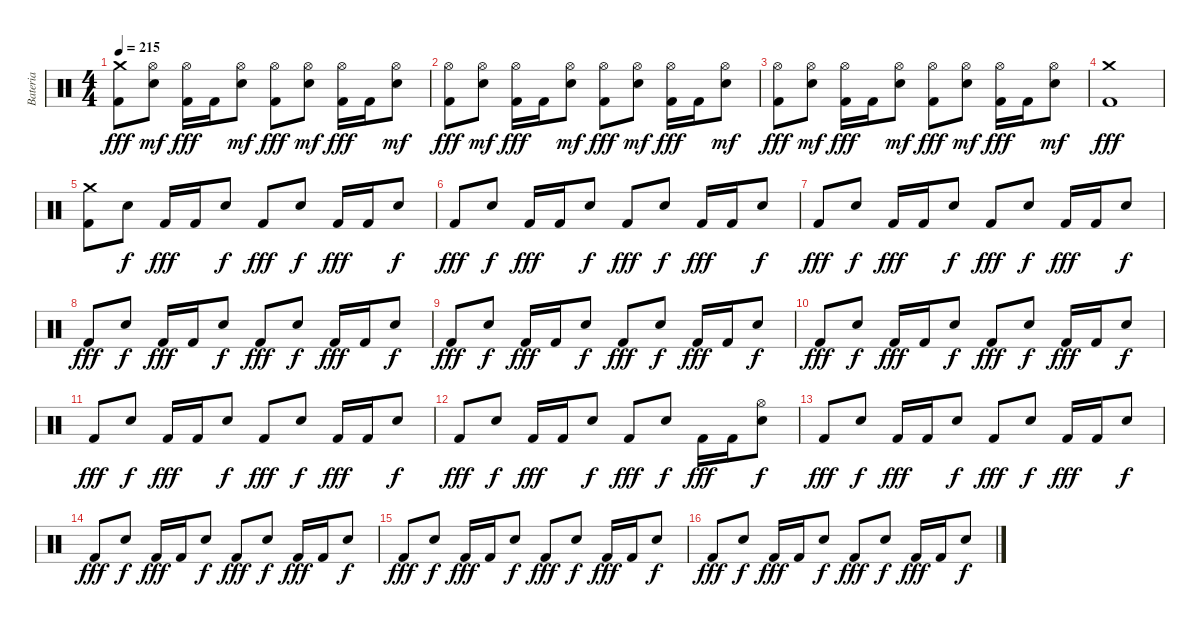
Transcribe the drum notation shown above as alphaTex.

\track ("Bateria" "Bateria") {instrument percussion}
\staff {score}
\articulation defaults
\ts (4 4)
\tempo 215
\clef neutral
\ks c
("Crash medium (hit)" "Kick (hit) 2").8{dy fff} ("Hi-Hat (open)" "Electric Snare (hit)").8{dy mf} ("Hi-Hat (open)" "Kick (hit) 2").16{dy fff} "Kick (hit) 2".16 ("Hi-Hat (open)" "Electric Snare (hit)").8{dy mf} ("Hi-Hat (open)" "Kick (hit) 2").8{dy fff} ("Hi-Hat (open)" "Electric Snare (hit)").8{dy mf} ("Hi-Hat (open)" "Kick (hit) 2").16{dy fff} "Kick (hit) 2".16 ("Hi-Hat (open)" "Electric Snare (hit)").8{dy mf} |
("Hi-Hat (open)" "Kick (hit) 2").8{dy fff} ("Hi-Hat (open)" "Electric Snare (hit)").8{dy mf} ("Hi-Hat (open)" "Kick (hit) 2").16{dy fff} "Kick (hit) 2".16 ("Hi-Hat (open)" "Electric Snare (hit)").8{dy mf} ("Hi-Hat (open)" "Kick (hit) 2").8{dy fff} ("Hi-Hat (open)" "Electric Snare (hit)").8{dy mf} ("Hi-Hat (open)" "Kick (hit) 2").16{dy fff} "Kick (hit) 2".16 ("Hi-Hat (open)" "Electric Snare (hit)").8{dy mf} |
("Hi-Hat (open)" "Kick (hit) 2").8{dy fff} ("Hi-Hat (open)" "Electric Snare (hit)").8{dy mf} ("Hi-Hat (open)" "Kick (hit) 2").16{dy fff} "Kick (hit) 2".16 ("Hi-Hat (open)" "Electric Snare (hit)").8{dy mf} ("Hi-Hat (open)" "Kick (hit) 2").8{dy fff} ("Hi-Hat (open)" "Electric Snare (hit)").8{dy mf} ("Hi-Hat (open)" "Kick (hit) 2").16{dy fff} "Kick (hit) 2".16 ("Hi-Hat (open)" "Electric Snare (hit)").8{dy mf} |
("Crash medium (hit)" "Kick (hit) 2").1{dy fff} |
("Crash medium (hit)" "Kick (hit) 2").8 "Electric Snare (hit)".8{dy f} "Kick (hit) 2".16{dy fff} "Kick (hit) 2".16 "Electric Snare (hit)".8{dy f} "Kick (hit) 2".8{dy fff} "Electric Snare (hit)".8{dy f} "Kick (hit) 2".16{dy fff} "Kick (hit) 2".16 "Electric Snare (hit)".8{dy f} |
"Kick (hit) 2".8{dy fff} "Electric Snare (hit)".8{dy f} "Kick (hit) 2".16{dy fff} "Kick (hit) 2".16 "Electric Snare (hit)".8{dy f} "Kick (hit) 2".8{dy fff} "Electric Snare (hit)".8{dy f} "Kick (hit) 2".16{dy fff} "Kick (hit) 2".16 "Electric Snare (hit)".8{dy f} |
"Kick (hit) 2".8{dy fff} "Electric Snare (hit)".8{dy f} "Kick (hit) 2".16{dy fff} "Kick (hit) 2".16 "Electric Snare (hit)".8{dy f} "Kick (hit) 2".8{dy fff} "Electric Snare (hit)".8{dy f} "Kick (hit) 2".16{dy fff} "Kick (hit) 2".16 "Electric Snare (hit)".8{dy f} |
"Kick (hit) 2".8{dy fff} "Electric Snare (hit)".8{dy f} "Kick (hit) 2".16{dy fff} "Kick (hit) 2".16 "Electric Snare (hit)".8{dy f} "Kick (hit) 2".8{dy fff} "Electric Snare (hit)".8{dy f} "Kick (hit) 2".16{dy fff} "Kick (hit) 2".16 "Electric Snare (hit)".8{dy f} |
"Kick (hit) 2".8{dy fff} "Electric Snare (hit)".8{dy f} "Kick (hit) 2".16{dy fff} "Kick (hit) 2".16 "Electric Snare (hit)".8{dy f} "Kick (hit) 2".8{dy fff} "Electric Snare (hit)".8{dy f} "Kick (hit) 2".16{dy fff} "Kick (hit) 2".16 "Electric Snare (hit)".8{dy f} |
"Kick (hit) 2".8{dy fff} "Electric Snare (hit)".8{dy f} "Kick (hit) 2".16{dy fff} "Kick (hit) 2".16 "Electric Snare (hit)".8{dy f} "Kick (hit) 2".8{dy fff} "Electric Snare (hit)".8{dy f} "Kick (hit) 2".16{dy fff} "Kick (hit) 2".16 "Electric Snare (hit)".8{dy f} |
"Kick (hit) 2".8{dy fff} "Electric Snare (hit)".8{dy f} "Kick (hit) 2".16{dy fff} "Kick (hit) 2".16 "Electric Snare (hit)".8{dy f} "Kick (hit) 2".8{dy fff} "Electric Snare (hit)".8{dy f} "Kick (hit) 2".16{dy fff} "Kick (hit) 2".16 "Electric Snare (hit)".8{dy f} |
"Kick (hit) 2".8{dy fff} "Electric Snare (hit)".8{dy f} "Kick (hit) 2".16{dy fff} "Kick (hit) 2".16 "Electric Snare (hit)".8{dy f} "Kick (hit) 2".8{dy fff} "Electric Snare (hit)".8{dy f} "Kick (hit) 2".16{dy fff} "Kick (hit) 2".16 ("Hi-Hat (open)" "Electric Snare (hit)").8{dy f} |
"Kick (hit) 2".8{dy fff} "Electric Snare (hit)".8{dy f} "Kick (hit) 2".16{dy fff} "Kick (hit) 2".16 "Electric Snare (hit)".8{dy f} "Kick (hit) 2".8{dy fff} "Electric Snare (hit)".8{dy f} "Kick (hit) 2".16{dy fff} "Kick (hit) 2".16 "Electric Snare (hit)".8{dy f} |
"Kick (hit) 2".8{dy fff} "Electric Snare (hit)".8{dy f} "Kick (hit) 2".16{dy fff} "Kick (hit) 2".16 "Electric Snare (hit)".8{dy f} "Kick (hit) 2".8{dy fff} "Electric Snare (hit)".8{dy f} "Kick (hit) 2".16{dy fff} "Kick (hit) 2".16 "Electric Snare (hit)".8{dy f} |
"Kick (hit) 2".8{dy fff} "Electric Snare (hit)".8{dy f} "Kick (hit) 2".16{dy fff} "Kick (hit) 2".16 "Electric Snare (hit)".8{dy f} "Kick (hit) 2".8{dy fff} "Electric Snare (hit)".8{dy f} "Kick (hit) 2".16{dy fff} "Kick (hit) 2".16 "Electric Snare (hit)".8{dy f} |
"Kick (hit) 2".8{dy fff} "Electric Snare (hit)".8{dy f} "Kick (hit) 2".16{dy fff} "Kick (hit) 2".16 "Electric Snare (hit)".8{dy f} "Kick (hit) 2".8{dy fff} "Electric Snare (hit)".8{dy f} "Kick (hit) 2".16{dy fff} "Kick (hit) 2".16 "Electric Snare (hit)".8{dy f}
